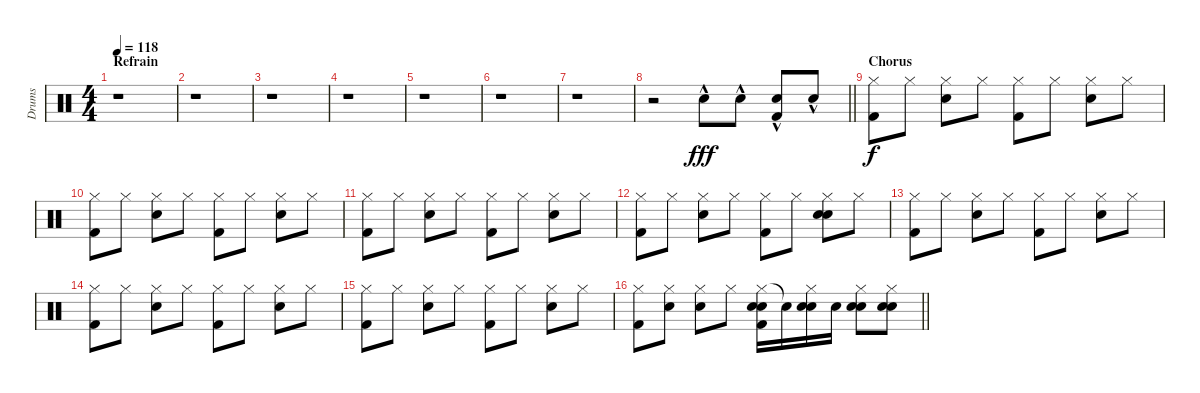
\track ("Drums" "Drums") {instrument percussion}
\staff {score}
\articulation defaults
\ts (4 4)
\section ("" "Refrain")
\tempo 118
\clef neutral
\ks c
r.1{dy f} |
r.1 |
r.1 |
r.1 |
r.1 |
r.1 |
r.1 |
\barLineRight lightlight
r.2 "Hand Clap (hit)"{hac}.8{dy fff} "Hand Clap (hit)"{hac}.8 ("Hand Clap (hit)"{hac} "Kick (hit) 2").8 "Hand Clap (hit)"{hac}.8 |
\section ("" "Chorus")
("Hi-Hat (closed)" "Kick (hit) 2").8{dy f} "Hi-Hat (closed)".8 ("Hi-Hat (closed)" "Snare (hit) 2").8 "Hi-Hat (closed)".8 ("Hi-Hat (closed)" "Kick (hit) 2").8 "Hi-Hat (closed)".8 ("Hi-Hat (closed)" "Snare (hit) 2").8 "Hi-Hat (closed)".8 |
("Hi-Hat (closed)" "Kick (hit) 2").8 "Hi-Hat (closed)".8 ("Hi-Hat (closed)" "Snare (hit) 2").8 "Hi-Hat (closed)".8 ("Hi-Hat (closed)" "Kick (hit) 2").8 "Hi-Hat (closed)".8 ("Hi-Hat (closed)" "Snare (hit) 2").8 "Hi-Hat (closed)".8 |
("Hi-Hat (closed)" "Kick (hit) 2").8 "Hi-Hat (closed)".8 ("Hi-Hat (closed)" "Snare (hit) 2").8 "Hi-Hat (closed)".8 ("Hi-Hat (closed)" "Kick (hit) 2").8 "Hi-Hat (closed)".8 ("Hi-Hat (closed)" "Snare (hit) 2").8 "Hi-Hat (closed)".8 |
("Hi-Hat (closed)" "Kick (hit) 2").8 "Hi-Hat (closed)".8 ("Hi-Hat (closed)" "Snare (hit) 2").8 "Hi-Hat (closed)".8 ("Hi-Hat (closed)" "Kick (hit) 2").8 "Hi-Hat (closed)".8 ("Hi-Hat (closed)" "Hand Clap (hit)" "Snare (hit) 2").8 "Hi-Hat (closed)".8 |
("Hi-Hat (closed)" "Kick (hit) 2").8 "Hi-Hat (closed)".8 ("Hi-Hat (closed)" "Snare (hit) 2").8 "Hi-Hat (closed)".8 ("Hi-Hat (closed)" "Kick (hit) 2").8 "Hi-Hat (closed)".8 ("Hi-Hat (closed)" "Snare (hit) 2").8 "Hi-Hat (closed)".8 |
("Hi-Hat (closed)" "Kick (hit) 2").8 "Hi-Hat (closed)".8 ("Hi-Hat (closed)" "Snare (hit) 2").8 "Hi-Hat (closed)".8 ("Hi-Hat (closed)" "Kick (hit) 2").8 "Hi-Hat (closed)".8 ("Hi-Hat (closed)" "Snare (hit) 2").8 "Hi-Hat (closed)".8 |
("Hi-Hat (closed)" "Kick (hit) 2").8 "Hi-Hat (closed)".8 ("Hi-Hat (closed)" "Snare (hit) 2").8 "Hi-Hat (closed)".8 ("Hi-Hat (closed)" "Kick (hit) 2").8 "Hi-Hat (closed)".8 ("Hi-Hat (closed)" "Snare (hit) 2").8 "Hi-Hat (closed)".8 |
\barLineRight lightlight
("Hi-Hat (closed)" "Kick (hit) 2").8 ("Hi-Hat (closed)" "Snare (hit) 2").8 ("Hi-Hat (closed)" "Snare (hit) 2").8 "Hi-Hat (closed)".8 ("Hi-Hat (closed)" "Hand Clap (hit)" "Snare (hit) 2" "Kick (hit) 2").16 "Snare (hit)"{t}.16 ("Hi-Hat (closed)" "Hand Clap (hit)" "Snare (hit) 2").16 "Snare (hit) 2".16 ("Hi-Hat (closed)" "Hand Clap (hit)" "Snare (hit) 2").8 ("Hi-Hat (closed)" "Hand Clap (hit)" "Snare (hit) 2").8
